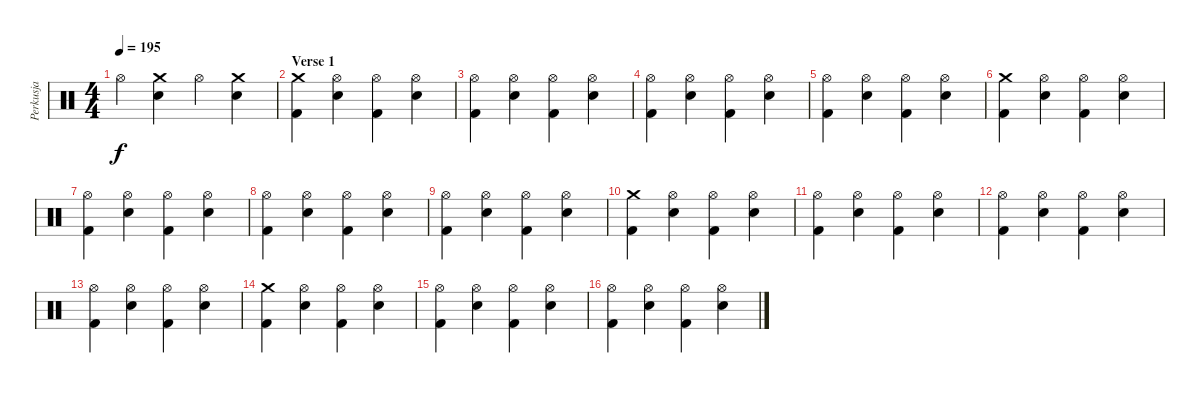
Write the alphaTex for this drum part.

\track ("Perkusja" "Perkusja") {instrument percussion}
\staff {score}
\articulation defaults
\ts (4 4)
\tempo 195
\clef neutral
\ks c "Hi-Hat (open)".4{dy f}
("Crash medium (hit)" "Snare (hit) 2").4 "Hi-Hat (open)".4 ("Crash medium (hit)" "Snare (hit) 2").4 |
\section ("" "Verse 1")
("Crash medium (hit)" "Kick (hit) 2").4 ("Hi-Hat (open)" "Snare (hit) 2").4 ("Hi-Hat (open)" "Kick (hit) 2").4 ("Hi-Hat (open)" "Snare (hit) 2").4 |
("Hi-Hat (open)" "Kick (hit) 2").4 ("Hi-Hat (open)" "Snare (hit) 2").4 ("Hi-Hat (open)" "Kick (hit) 2").4 ("Hi-Hat (open)" "Snare (hit) 2").4 |
("Hi-Hat (open)" "Kick (hit) 2").4 ("Hi-Hat (open)" "Snare (hit) 2").4 ("Hi-Hat (open)" "Kick (hit) 2").4 ("Hi-Hat (open)" "Snare (hit) 2").4 |
("Hi-Hat (open)" "Kick (hit) 2").4 ("Hi-Hat (open)" "Snare (hit) 2").4 ("Hi-Hat (open)" "Kick (hit) 2").4 ("Hi-Hat (open)" "Snare (hit) 2").4 |
("Crash medium (hit)" "Kick (hit) 2").4 ("Hi-Hat (open)" "Snare (hit) 2").4 ("Hi-Hat (open)" "Kick (hit) 2").4 ("Hi-Hat (open)" "Snare (hit) 2").4 |
("Hi-Hat (open)" "Kick (hit) 2").4 ("Hi-Hat (open)" "Snare (hit) 2").4 ("Hi-Hat (open)" "Kick (hit) 2").4 ("Hi-Hat (open)" "Snare (hit) 2").4 |
("Hi-Hat (open)" "Kick (hit) 2").4 ("Hi-Hat (open)" "Snare (hit) 2").4 ("Hi-Hat (open)" "Kick (hit) 2").4 ("Hi-Hat (open)" "Snare (hit) 2").4 |
("Hi-Hat (open)" "Kick (hit) 2").4 ("Hi-Hat (open)" "Snare (hit) 2").4 ("Hi-Hat (open)" "Kick (hit) 2").4 ("Hi-Hat (open)" "Snare (hit) 2").4 |
("Crash medium (hit)" "Kick (hit) 2").4 ("Hi-Hat (open)" "Snare (hit) 2").4 ("Hi-Hat (open)" "Kick (hit) 2").4 ("Hi-Hat (open)" "Snare (hit) 2").4 |
("Hi-Hat (open)" "Kick (hit) 2").4 ("Hi-Hat (open)" "Snare (hit) 2").4 ("Hi-Hat (open)" "Kick (hit) 2").4 ("Hi-Hat (open)" "Snare (hit) 2").4 |
("Hi-Hat (open)" "Kick (hit) 2").4 ("Hi-Hat (open)" "Snare (hit) 2").4 ("Hi-Hat (open)" "Kick (hit) 2").4 ("Hi-Hat (open)" "Snare (hit) 2").4 |
("Hi-Hat (open)" "Kick (hit) 2").4 ("Hi-Hat (open)" "Snare (hit) 2").4 ("Hi-Hat (open)" "Kick (hit) 2").4 ("Hi-Hat (open)" "Snare (hit) 2").4 |
("Crash medium (hit)" "Kick (hit) 2").4 ("Hi-Hat (open)" "Snare (hit) 2").4 ("Hi-Hat (open)" "Kick (hit) 2").4 ("Hi-Hat (open)" "Snare (hit) 2").4 |
("Hi-Hat (open)" "Kick (hit) 2").4 ("Hi-Hat (open)" "Snare (hit) 2").4 ("Hi-Hat (open)" "Kick (hit) 2").4 ("Hi-Hat (open)" "Snare (hit) 2").4 |
("Hi-Hat (open)" "Kick (hit) 2").4 ("Hi-Hat (open)" "Snare (hit) 2").4 ("Hi-Hat (open)" "Kick (hit) 2").4 ("Hi-Hat (open)" "Snare (hit) 2").4
